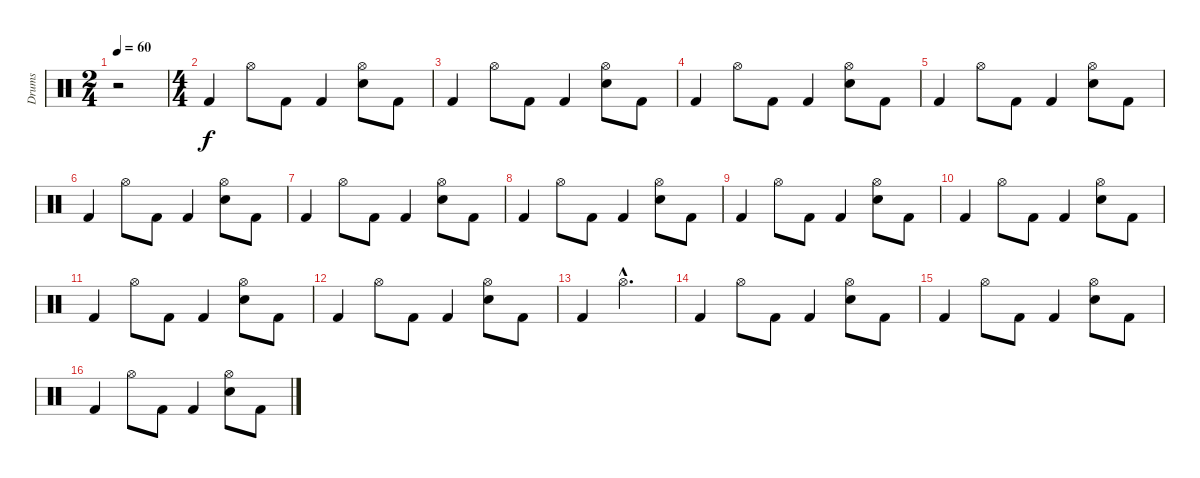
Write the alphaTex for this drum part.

\track ("Drums" "Drums") {instrument percussion}
\staff {score}
\articulation defaults
\ts (2 4)
\tempo 60
\clef neutral
\ks c
r.2{dy f} |
\ts (4 4)
"Kick (hit) 2".4 "Hi-Hat (open)".8 "Kick (hit) 2".8 "Kick (hit) 2".4 ("Hi-Hat (open)" "Electric Snare (hit)").8 "Kick (hit) 2".8 |
"Kick (hit) 2".4 "Hi-Hat (open)".8 "Kick (hit) 2".8 "Kick (hit) 2".4 ("Hi-Hat (open)" "Electric Snare (hit)").8 "Kick (hit) 2".8 |
"Kick (hit) 2".4 "Hi-Hat (open)".8 "Kick (hit) 2".8 "Kick (hit) 2".4 ("Hi-Hat (open)" "Electric Snare (hit)").8 "Kick (hit) 2".8 |
"Kick (hit) 2".4 "Hi-Hat (open)".8 "Kick (hit) 2".8 "Kick (hit) 2".4 ("Hi-Hat (open)" "Electric Snare (hit)").8 "Kick (hit) 2".8 |
"Kick (hit) 2".4 "Hi-Hat (open)".8 "Kick (hit) 2".8 "Kick (hit) 2".4 ("Hi-Hat (open)" "Electric Snare (hit)").8 "Kick (hit) 2".8 |
"Kick (hit) 2".4 "Hi-Hat (open)".8 "Kick (hit) 2".8 "Kick (hit) 2".4 ("Hi-Hat (open)" "Electric Snare (hit)").8 "Kick (hit) 2".8 |
"Kick (hit) 2".4 "Hi-Hat (open)".8 "Kick (hit) 2".8 "Kick (hit) 2".4 ("Hi-Hat (open)" "Electric Snare (hit)").8 "Kick (hit) 2".8 |
"Kick (hit) 2".4 "Hi-Hat (open)".8 "Kick (hit) 2".8 "Kick (hit) 2".4 ("Hi-Hat (open)" "Electric Snare (hit)").8 "Kick (hit) 2".8 |
"Kick (hit) 2".4 "Hi-Hat (open)".8 "Kick (hit) 2".8 "Kick (hit) 2".4 ("Hi-Hat (open)" "Electric Snare (hit)").8 "Kick (hit) 2".8 |
"Kick (hit) 2".4 "Hi-Hat (open)".8 "Kick (hit) 2".8 "Kick (hit) 2".4 ("Hi-Hat (open)" "Electric Snare (hit)").8 "Kick (hit) 2".8 |
"Kick (hit) 2".4 "Hi-Hat (open)".8 "Kick (hit) 2".8 "Kick (hit) 2".4 ("Hi-Hat (open)" "Electric Snare (hit)").8 "Kick (hit) 2".8 |
"Kick (hit) 2".4 "Hi-Hat (open)"{hac}.2{d} |
"Kick (hit) 2".4 "Hi-Hat (open)".8 "Kick (hit) 2".8 "Kick (hit) 2".4 ("Hi-Hat (open)" "Electric Snare (hit)").8 "Kick (hit) 2".8 |
"Kick (hit) 2".4 "Hi-Hat (open)".8 "Kick (hit) 2".8 "Kick (hit) 2".4 ("Hi-Hat (open)" "Electric Snare (hit)").8 "Kick (hit) 2".8 |
"Kick (hit) 2".4 "Hi-Hat (open)".8 "Kick (hit) 2".8 "Kick (hit) 2".4 ("Hi-Hat (open)" "Electric Snare (hit)").8 "Kick (hit) 2".8
